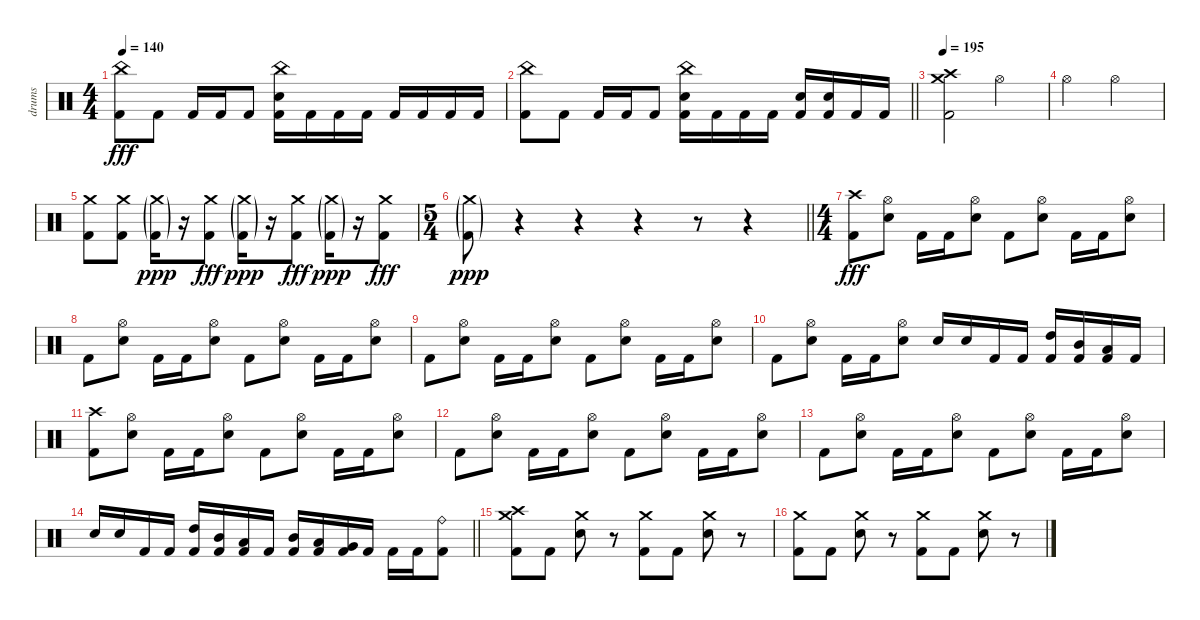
\track ("drums" "drums") {instrument percussion}
\staff {score}
\articulation defaults
\ts (4 4)
\tempo 140
\clef neutral
\ks c
("China (hit)" "Kick (hit) 2").8{dy fff} "Kick (hit) 2".8 "Kick (hit) 2".16 "Kick (hit) 2".16 "Kick (hit) 2".8 ("China (hit)" "Electric Snare (hit)" "Kick (hit) 2").16 "Kick (hit) 2".16 "Kick (hit) 2".16 "Kick (hit) 2".16 "Kick (hit) 2".16 "Kick (hit) 2".16 "Kick (hit) 2".16 "Kick (hit) 2".16 |
\barLineRight lightlight
("China (hit)" "Kick (hit) 2").8 "Kick (hit) 2".8 "Kick (hit) 2".16 "Kick (hit) 2".16 "Kick (hit) 2".8 ("China (hit)" "Electric Snare (hit)" "Kick (hit) 2").16 "Kick (hit) 2".16 "Kick (hit) 2".16 "Kick (hit) 2".16 ("Electric Snare (hit)" "Kick (hit) 2").16 ("Electric Snare (hit)" "Kick (hit) 2").16 "Kick (hit) 2".16 "Kick (hit) 2".16 |
\section ("" "")
\tempo 195
("Crash high (hit)" "Crash medium (hit)" "Kick (hit) 2").2 "Hi-Hat (open)".2 |
"Hi-Hat (open)".2 "Hi-Hat (open)".2 |
("Crash medium (hit)" "Kick (hit) 2").8 ("Crash medium (hit)" "Kick (hit) 2").8 ("Crash medium (hit)"{g} "Kick (hit) 2"{g}).16{dy ppp} r.16 ("Crash medium (hit)" "Kick (hit) 2").8{dy fff} ("Crash medium (hit)"{g} "Kick (hit) 2"{g}).16{dy ppp} r.16 ("Crash medium (hit)" "Kick (hit) 2").8{dy fff} ("Crash medium (hit)"{g} "Kick (hit) 2"{g}).16{dy ppp} r.16 ("Crash medium (hit)" "Kick (hit) 2").8{dy fff} |
\ts (5 4)
\barLineRight lightlight
("Crash medium (hit)"{g} "Kick (hit) 2"{g}).8{dy ppp} r.4 r.4 r.4 r.8 r.4 |
\ts (4 4)
\section ("" "")
("Crash high (hit)" "Kick (hit) 2").8{dy fff} ("Hi-Hat (open)" "Electric Snare (hit)").8 "Kick (hit) 2".16 "Kick (hit) 2".16 ("Hi-Hat (open)" "Electric Snare (hit)").8 "Kick (hit) 2".8 ("Hi-Hat (open)" "Electric Snare (hit)").8 "Kick (hit) 2".16 "Kick (hit) 2".16 ("Hi-Hat (open)" "Electric Snare (hit)").8 |
"Kick (hit) 2".8 ("Hi-Hat (open)" "Electric Snare (hit)").8 "Kick (hit) 2".16 "Kick (hit) 2".16 ("Hi-Hat (open)" "Electric Snare (hit)").8 "Kick (hit) 2".8 ("Hi-Hat (open)" "Electric Snare (hit)").8 "Kick (hit) 2".16 "Kick (hit) 2".16 ("Hi-Hat (open)" "Electric Snare (hit)").8 |
"Kick (hit) 2".8 ("Hi-Hat (open)" "Electric Snare (hit)").8 "Kick (hit) 2".16 "Kick (hit) 2".16 ("Hi-Hat (open)" "Electric Snare (hit)").8 "Kick (hit) 2".8 ("Hi-Hat (open)" "Electric Snare (hit)").8 "Kick (hit) 2".16 "Kick (hit) 2".16 ("Hi-Hat (open)" "Electric Snare (hit)").8 |
"Kick (hit) 2".8 ("Hi-Hat (open)" "Electric Snare (hit)").8 "Kick (hit) 2".16 "Kick (hit) 2".16 ("Hi-Hat (open)" "Electric Snare (hit)").8 "Electric Snare (hit)".16 "Electric Snare (hit)".16 "Kick (hit) 2".16 "Kick (hit) 2".16 ("High Tom (hit)" "Kick (hit) 2").16 ("Mid Tom (hit)" "Kick (hit) 2").16 ("Low Tom (hit)" "Kick (hit) 2").16 "Kick (hit) 2".16 |
("Crash high (hit)" "Kick (hit) 2").8 ("Hi-Hat (open)" "Electric Snare (hit)").8 "Kick (hit) 2".16 "Kick (hit) 2".16 ("Hi-Hat (open)" "Electric Snare (hit)").8 "Kick (hit) 2".8 ("Hi-Hat (open)" "Electric Snare (hit)").8 "Kick (hit) 2".16 "Kick (hit) 2".16 ("Hi-Hat (open)" "Electric Snare (hit)").8 |
"Kick (hit) 2".8 ("Hi-Hat (open)" "Electric Snare (hit)").8 "Kick (hit) 2".16 "Kick (hit) 2".16 ("Hi-Hat (open)" "Electric Snare (hit)").8 "Kick (hit) 2".8 ("Hi-Hat (open)" "Electric Snare (hit)").8 "Kick (hit) 2".16 "Kick (hit) 2".16 ("Hi-Hat (open)" "Electric Snare (hit)").8 |
"Kick (hit) 2".8 ("Hi-Hat (open)" "Electric Snare (hit)").8 "Kick (hit) 2".16 "Kick (hit) 2".16 ("Hi-Hat (open)" "Electric Snare (hit)").8 "Kick (hit) 2".8 ("Hi-Hat (open)" "Electric Snare (hit)").8 "Kick (hit) 2".16 "Kick (hit) 2".16 ("Hi-Hat (open)" "Electric Snare (hit)").8 |
\barLineRight lightlight "Electric Snare (hit)".16 "Electric Snare (hit)".16 "Kick (hit) 2".16 "Kick (hit) 2".16
("High Tom (hit)" "Kick (hit) 2").16 ("Mid Tom (hit)" "Kick (hit) 2").16 ("Low Tom (hit)" "Kick (hit) 2").16 "Kick (hit) 2".16 ("Mid Tom (hit)" "Kick (hit) 2").16 ("Low Tom (hit)" "Kick (hit) 2").16 ("Very Low Tom (hit)" "Kick (hit) 2").16 "Kick (hit) 2".16 "Kick (hit) 2".16 "Kick (hit) 2".16 ("Ride (bell)" "Kick (hit) 2").8 |
("Crash medium (hit)" "Crash high (hit)" "Kick (hit) 2").8 "Kick (hit) 2".8 ("Crash medium (hit)" "Electric Snare (hit)").8 r.8 ("Crash medium (hit)" "Kick (hit) 2").8 "Kick (hit) 2".8 ("Crash medium (hit)" "Electric Snare (hit)").8 r.8 |
("Crash medium (hit)" "Kick (hit) 2").8 "Kick (hit) 2".8 ("Crash medium (hit)" "Electric Snare (hit)").8 r.8 ("Crash medium (hit)" "Kick (hit) 2").8 "Kick (hit) 2".8 ("Crash medium (hit)" "Electric Snare (hit)").8 r.8
